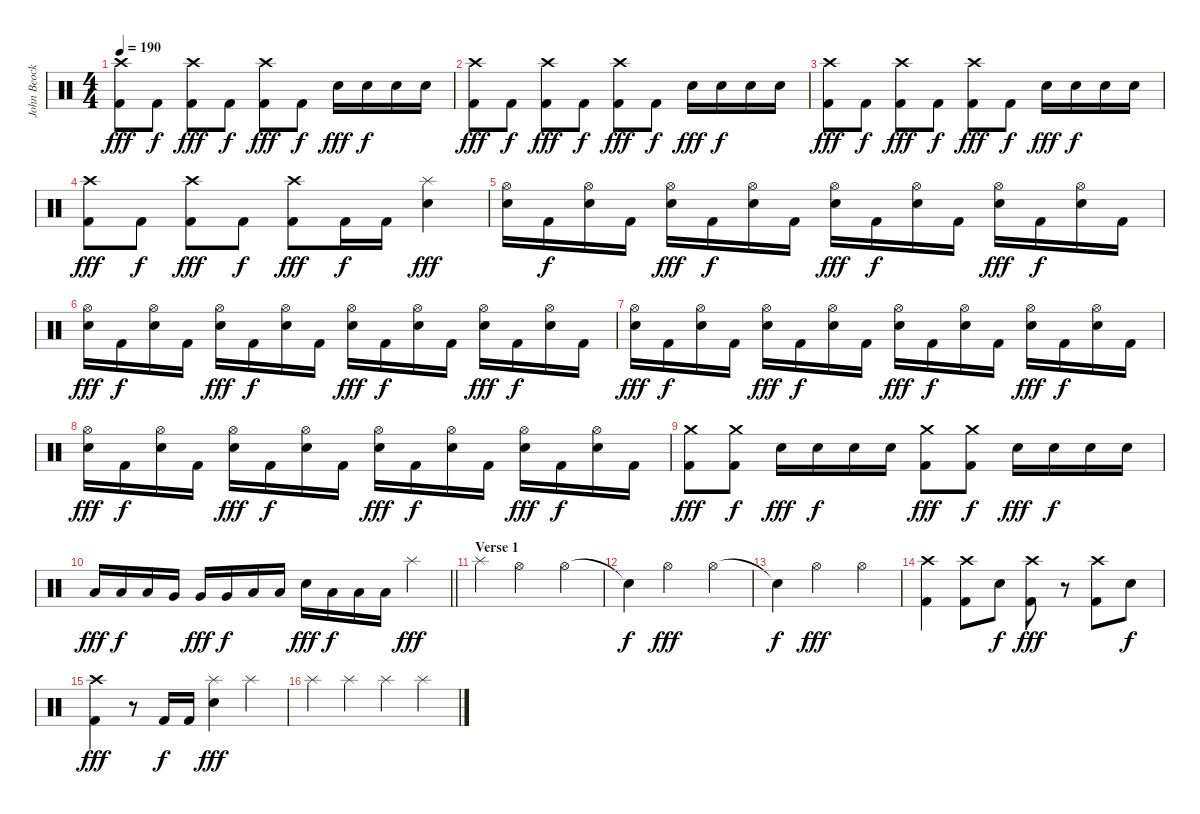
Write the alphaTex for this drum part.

\track ("John Beocklin (Drums)" "John Beock") {instrument percussion}
\staff {score}
\articulation defaults
\ts (4 4)
\tempo 190
\clef neutral
\ks c
("Crash high (hit)" "Kick (hit) 2").8{dy fff} "Kick (hit) 2".8{dy f} ("Crash high (hit)" "Kick (hit) 2").8{dy fff} "Kick (hit) 2".8{dy f} ("Crash high (hit)" "Kick (hit) 2").8{dy fff} "Kick (hit) 2".8{dy f} "Snare (hit) 2".16{dy fff} "Snare (hit) 2".16{dy f} "Snare (hit) 2".16 "Snare (hit) 2".16 |
("Crash high (hit)" "Kick (hit) 2").8{dy fff} "Kick (hit) 2".8{dy f} ("Crash high (hit)" "Kick (hit) 2").8{dy fff} "Kick (hit) 2".8{dy f} ("Crash high (hit)" "Kick (hit) 2").8{dy fff} "Kick (hit) 2".8{dy f} "Snare (hit) 2".16{dy fff} "Snare (hit) 2".16{dy f} "Snare (hit) 2".16 "Snare (hit) 2".16 |
("Crash high (hit)" "Kick (hit) 2").8{dy fff} "Kick (hit) 2".8{dy f} ("Crash high (hit)" "Kick (hit) 2").8{dy fff} "Kick (hit) 2".8{dy f} ("Crash high (hit)" "Kick (hit) 2").8{dy fff} "Kick (hit) 2".8{dy f} "Snare (hit) 2".16{dy fff} "Snare (hit) 2".16{dy f} "Snare (hit) 2".16 "Snare (hit) 2".16 |
("Crash high (hit)" "Kick (hit) 2").8{dy fff} "Kick (hit) 2".8{dy f} ("Crash high (hit)" "Kick (hit) 2").8{dy fff} "Kick (hit) 2".8{dy f} ("Crash high (hit)" "Kick (hit) 2").8{dy fff} "Kick (hit) 2".16{dy f} "Kick (hit) 2".16 ("Splash (hit)" "Snare (hit) 2").4{dy fff} |
("Hi-Hat (open)" "Snare (hit) 2").16 "Kick (hit) 2".16{dy f} ("Hi-Hat (open)" "Snare (hit) 2").16 "Kick (hit) 2".16 ("Hi-Hat (open)" "Snare (hit) 2").16{dy fff} "Kick (hit) 2".16{dy f} ("Hi-Hat (open)" "Snare (hit) 2").16 "Kick (hit) 2".16 ("Hi-Hat (open)" "Snare (hit) 2").16{dy fff} "Kick (hit) 2".16{dy f} ("Hi-Hat (open)" "Snare (hit) 2").16 "Kick (hit) 2".16 ("Hi-Hat (open)" "Snare (hit) 2").16{dy fff} "Kick (hit) 2".16{dy f} ("Hi-Hat (open)" "Snare (hit) 2").16 "Kick (hit) 2".16 |
("Hi-Hat (open)" "Snare (hit) 2").16{dy fff} "Kick (hit) 2".16{dy f} ("Hi-Hat (open)" "Snare (hit) 2").16 "Kick (hit) 2".16 ("Hi-Hat (open)" "Snare (hit) 2").16{dy fff} "Kick (hit) 2".16{dy f} ("Hi-Hat (open)" "Snare (hit) 2").16 "Kick (hit) 2".16 ("Hi-Hat (open)" "Snare (hit) 2").16{dy fff} "Kick (hit) 2".16{dy f} ("Hi-Hat (open)" "Snare (hit) 2").16 "Kick (hit) 2".16 ("Hi-Hat (open)" "Snare (hit) 2").16{dy fff} "Kick (hit) 2".16{dy f} ("Hi-Hat (open)" "Snare (hit) 2").16 "Kick (hit) 2".16 |
("Hi-Hat (open)" "Snare (hit) 2").16{dy fff} "Kick (hit) 2".16{dy f} ("Hi-Hat (open)" "Snare (hit) 2").16 "Kick (hit) 2".16 ("Hi-Hat (open)" "Snare (hit) 2").16{dy fff} "Kick (hit) 2".16{dy f} ("Hi-Hat (open)" "Snare (hit) 2").16 "Kick (hit) 2".16 ("Hi-Hat (open)" "Snare (hit) 2").16{dy fff} "Kick (hit) 2".16{dy f} ("Hi-Hat (open)" "Snare (hit) 2").16 "Kick (hit) 2".16 ("Hi-Hat (open)" "Snare (hit) 2").16{dy fff} "Kick (hit) 2".16{dy f} ("Hi-Hat (open)" "Snare (hit) 2").16 "Kick (hit) 2".16 |
("Hi-Hat (open)" "Snare (hit) 2").16{dy fff} "Kick (hit) 2".16{dy f} ("Hi-Hat (open)" "Snare (hit) 2").16 "Kick (hit) 2".16 ("Hi-Hat (open)" "Snare (hit) 2").16{dy fff} "Kick (hit) 2".16{dy f} ("Hi-Hat (open)" "Snare (hit) 2").16 "Kick (hit) 2".16 ("Hi-Hat (open)" "Snare (hit) 2").16{dy fff} "Kick (hit) 2".16{dy f} ("Hi-Hat (open)" "Snare (hit) 2").16 "Kick (hit) 2".16 ("Hi-Hat (open)" "Snare (hit) 2").16{dy fff} "Kick (hit) 2".16{dy f} ("Hi-Hat (open)" "Snare (hit) 2").16 "Kick (hit) 2".16 |
("Crash medium (hit)" "Kick (hit) 2").8{dy fff} ("Crash medium (hit)" "Kick (hit) 2").8{dy f} "Snare (hit) 2".16{dy fff} "Snare (hit) 2".16{dy f} "Snare (hit) 2".16 "Snare (hit) 2".16 ("Crash medium (hit)" "Kick (hit) 2").8{dy fff} ("Crash medium (hit)" "Kick (hit) 2").8{dy f} "Snare (hit) 2".16{dy fff} "Snare (hit) 2".16{dy f} "Snare (hit) 2".16 "Snare (hit) 2".16 |
\barLineRight lightlight "Low Tom (hit)".16{dy fff} "Low Tom (hit)".16{dy f} "Low Tom (hit)".16 "Very Low Tom (hit)".16 "Very Low Tom (hit)".16{dy fff} "Very Low Tom (hit)".16{dy f} "Low Floor Tom (hit)".16 "Low Floor Tom (hit)".16 "Snare (hit) 2".16{dy fff} "Low Tom (hit)".16{dy f} "Low Tom (hit)".16 "Low Tom (hit)".16 "Splash (hit)".4{dy fff}
|
\section ("" "Verse 1")
"Splash (hit)".4 "Hi-Hat (open)".2 "Hi-Hat (open)".4 |
"Snare (hit)"{t}.4{dy f} "Hi-Hat (open)".2{dy fff} "Hi-Hat (open)".4 |
"Snare (hit)"{t}.4{dy f} "Hi-Hat (open)".2{dy fff} "Hi-Hat (open)".4 |
("Crash high (hit)" "Kick (hit) 2").4 ("Crash high (hit)" "Kick (hit) 2").8 "Snare (hit) 2".8{dy f} ("Crash high (hit)" "Kick (hit) 2").8{dy fff} r.8 ("Crash high (hit)" "Kick (hit) 2").8 "Snare (hit) 2".8{dy f} |
("Crash high (hit)" "Kick (hit) 2").4{dy fff} r.8 "Kick (hit) 2".16{dy f} "Kick (hit) 2".16 ("Splash (hit)" "Snare (hit) 2").4{dy fff} "Splash (hit)".4 |
"Splash (hit)".4 "Splash (hit)".4 "Splash (hit)".4 "Splash (hit)".4
